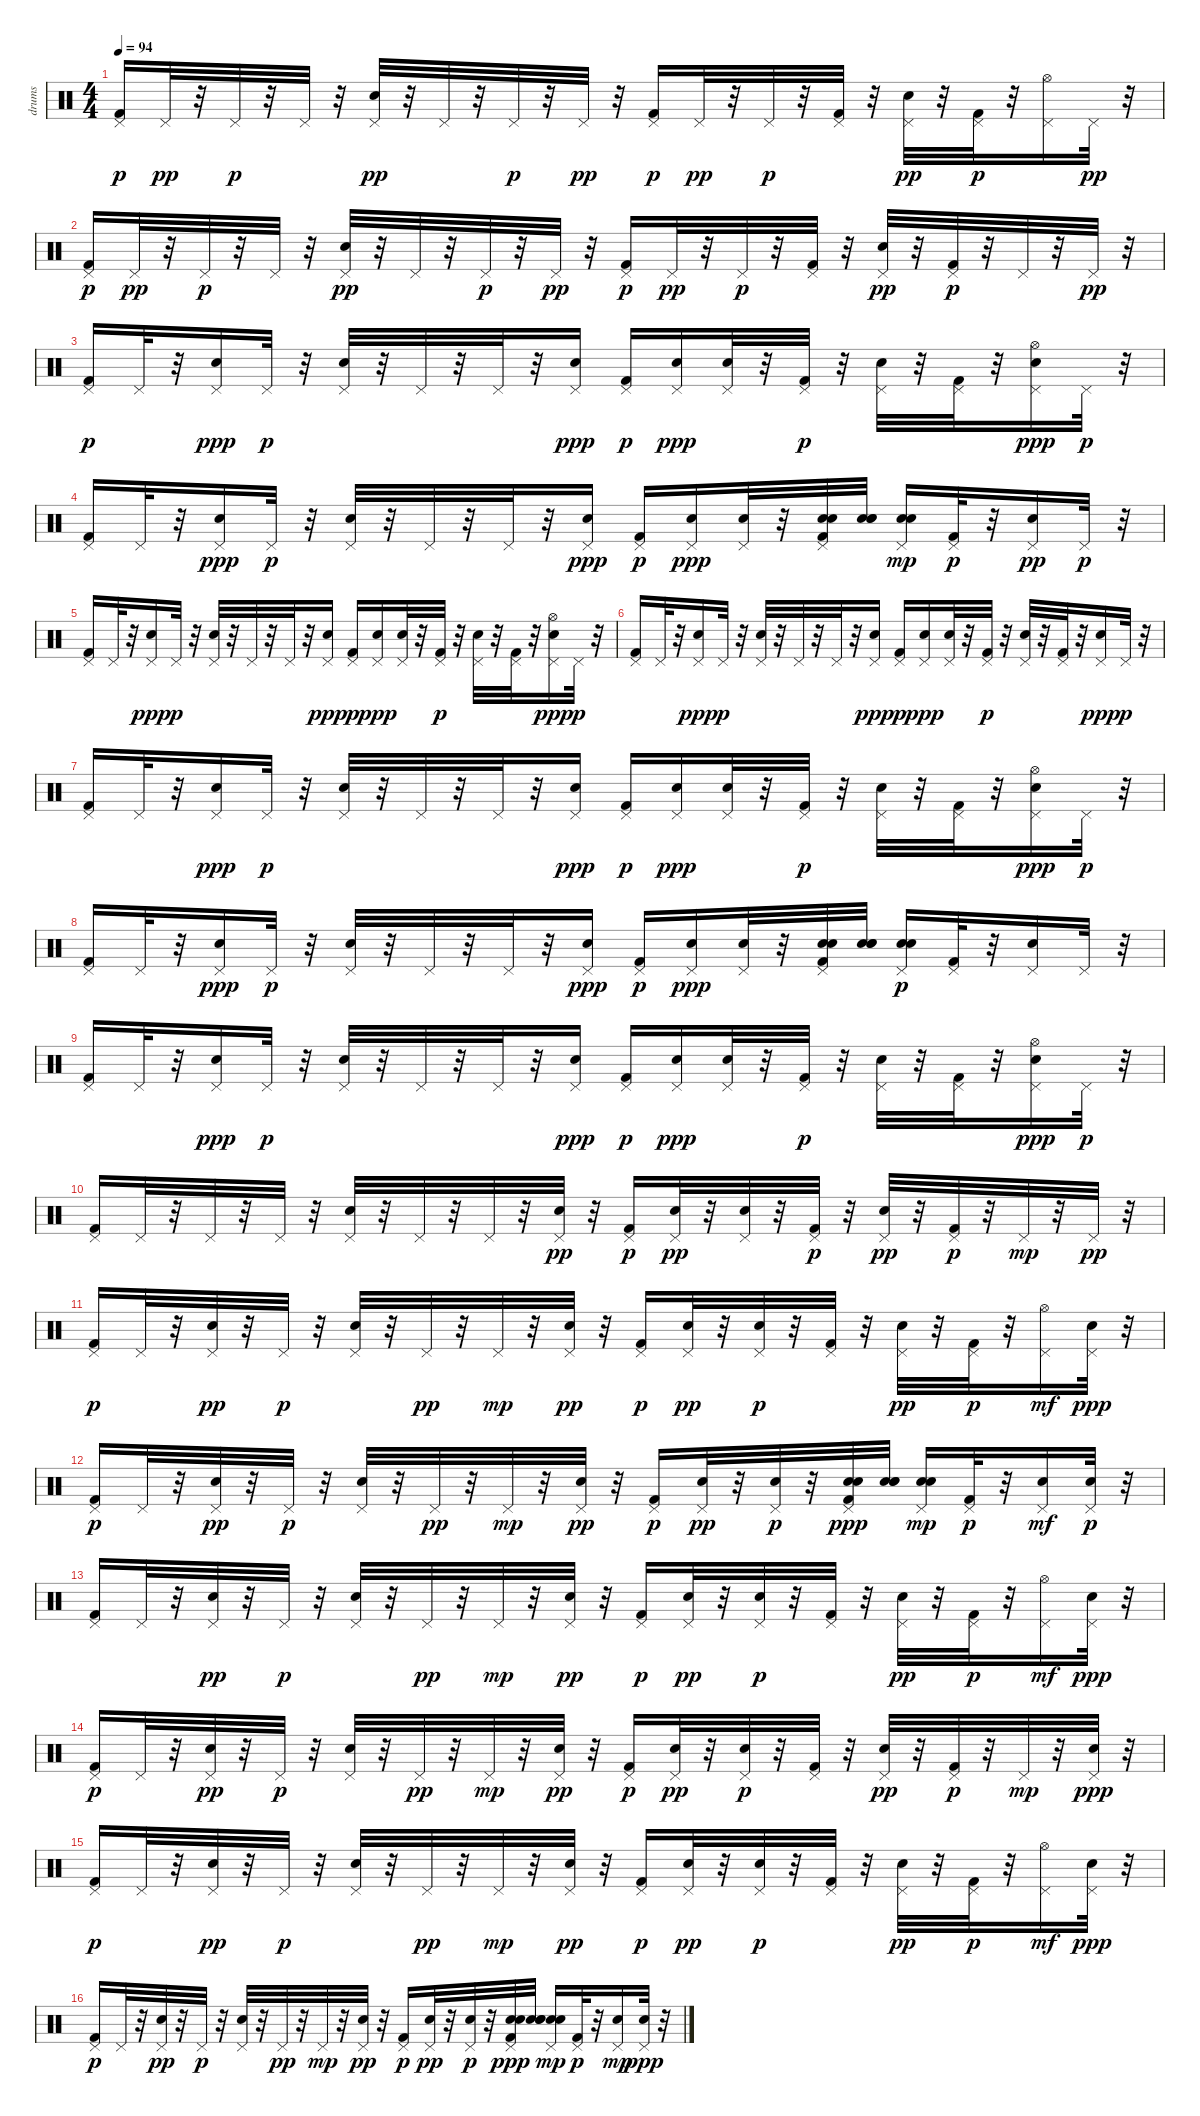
\track ("drums" "drums") {instrument percussion}
\staff {score}
\articulation defaults
\ts (4 4)
\tempo 94
\clef neutral
\ks c
("Pedal Hi-Hat (hit)" "Kick (hit) 2").16{dy p} "Pedal Hi-Hat (hit)".32{dy pp} r.32 "Pedal Hi-Hat (hit)".32{dy p} r.32 "Pedal Hi-Hat (hit)".32 r.32 ("Snare (hit) 2" "Pedal Hi-Hat (hit)").32{dy pp} r.32 "Pedal Hi-Hat (hit)".32 r.32 "Pedal Hi-Hat (hit)".32{dy p} r.32 "Pedal Hi-Hat (hit)".32{dy pp} r.32 ("Pedal Hi-Hat (hit)" "Kick (hit) 2").16{dy p} "Pedal Hi-Hat (hit)".32{dy pp} r.32 "Pedal Hi-Hat (hit)".32{dy p} r.32 ("Pedal Hi-Hat (hit)" "Kick (hit) 2").32 r.32 ("Snare (hit) 2" "Pedal Hi-Hat (hit)").32{dy pp} r.32 ("Pedal Hi-Hat (hit)" "Kick (hit) 2").32{dy p} r.32 ("Hi-Hat (open)" "Pedal Hi-Hat (hit)").16 "Pedal Hi-Hat (hit)".32{dy pp} r.32 |
("Pedal Hi-Hat (hit)" "Kick (hit) 2").16{dy p} "Pedal Hi-Hat (hit)".32{dy pp} r.32 "Pedal Hi-Hat (hit)".32{dy p} r.32 "Pedal Hi-Hat (hit)".32 r.32 ("Snare (hit) 2" "Pedal Hi-Hat (hit)").32{dy pp} r.32 "Pedal Hi-Hat (hit)".32 r.32 "Pedal Hi-Hat (hit)".32{dy p} r.32 "Pedal Hi-Hat (hit)".32{dy pp} r.32 ("Pedal Hi-Hat (hit)" "Kick (hit) 2").16{dy p} "Pedal Hi-Hat (hit)".32{dy pp} r.32 "Pedal Hi-Hat (hit)".32{dy p} r.32 ("Pedal Hi-Hat (hit)" "Kick (hit) 2").32 r.32 ("Snare (hit) 2" "Pedal Hi-Hat (hit)").32{dy pp} r.32 ("Pedal Hi-Hat (hit)" "Kick (hit) 2").32{dy p} r.32 "Pedal Hi-Hat (hit)".32 r.32 "Pedal Hi-Hat (hit)".32{dy pp} r.32 |
("Pedal Hi-Hat (hit)" "Kick (hit) 2").16{dy p} "Pedal Hi-Hat (hit)".32 r.32 ("Pedal Hi-Hat (hit)" "Snare (hit) 2").16{dy ppp} "Pedal Hi-Hat (hit)".32{dy p} r.32 ("Snare (hit) 2" "Pedal Hi-Hat (hit)").32 r.32 "Pedal Hi-Hat (hit)".32 r.32 "Pedal Hi-Hat (hit)".32 r.32 ("Pedal Hi-Hat (hit)" "Snare (hit) 2").16{dy ppp} ("Pedal Hi-Hat (hit)" "Kick (hit) 2").16{dy p} ("Pedal Hi-Hat (hit)" "Snare (hit) 2").16{dy ppp} ("Pedal Hi-Hat (hit)" "Snare (hit) 2").32 r.32 ("Pedal Hi-Hat (hit)" "Kick (hit) 2").32{dy p} r.32 ("Snare (hit) 2" "Pedal Hi-Hat (hit)").32 r.32 ("Pedal Hi-Hat (hit)" "Kick (hit) 2").32 r.32 ("Hi-Hat (open)" "Pedal Hi-Hat (hit)" "Snare (hit) 2").16{dy ppp} "Pedal Hi-Hat (hit)".32{dy p} r.32 |
("Pedal Hi-Hat (hit)" "Kick (hit) 2").16 "Pedal Hi-Hat (hit)".32 r.32 ("Pedal Hi-Hat (hit)" "Snare (hit) 2").16{dy ppp} "Pedal Hi-Hat (hit)".32{dy p} r.32 ("Snare (hit) 2" "Pedal Hi-Hat (hit)").32 r.32 "Pedal Hi-Hat (hit)".32 r.32 "Pedal Hi-Hat (hit)".32 r.32 ("Pedal Hi-Hat (hit)" "Snare (hit) 2").16{dy ppp} ("Pedal Hi-Hat (hit)" "Kick (hit) 2").16{dy p} ("Pedal Hi-Hat (hit)" "Snare (hit) 2").16{dy ppp} ("Pedal Hi-Hat (hit)" "Snare (hit) 2").32 r.32 ("Pedal Hi-Hat (hit)" "Snare (hit) 2" "Kick (hit) 2" "Snare (hit) 2").32{balance 0} ("Snare (hit) 2" "Snare (hit) 2" "Snare (hit) 2").32 ("Snare (hit) 2" "Pedal Hi-Hat (hit)" "Snare (hit) 2").16{dy mp} ("Pedal Hi-Hat (hit)" "Kick (hit) 2").32{dy p balance 8} r.32 ("Pedal Hi-Hat (hit)" "Snare (hit) 2").16{dy pp} "Pedal Hi-Hat (hit)".32{dy p} r.32 |
("Pedal Hi-Hat (hit)" "Kick (hit) 2").16 "Pedal Hi-Hat (hit)".32 r.32 ("Pedal Hi-Hat (hit)" "Snare (hit) 2").16{dy ppp} "Pedal Hi-Hat (hit)".32{dy p} r.32 ("Snare (hit) 2" "Pedal Hi-Hat (hit)").32 r.32 "Pedal Hi-Hat (hit)".32 r.32 "Pedal Hi-Hat (hit)".32 r.32 ("Pedal Hi-Hat (hit)" "Snare (hit) 2").16{dy ppp} ("Pedal Hi-Hat (hit)" "Kick (hit) 2").16{dy p} ("Pedal Hi-Hat (hit)" "Snare (hit) 2").16{dy ppp} ("Pedal Hi-Hat (hit)" "Snare (hit) 2").32 r.32 ("Pedal Hi-Hat (hit)" "Kick (hit) 2").32{dy p} r.32 ("Snare (hit) 2" "Pedal Hi-Hat (hit)").32 r.32 ("Pedal Hi-Hat (hit)" "Kick (hit) 2").32 r.32 ("Hi-Hat (open)" "Pedal Hi-Hat (hit)" "Snare (hit) 2").16{dy ppp} "Pedal Hi-Hat (hit)".32{dy p} r.32 |
("Pedal Hi-Hat (hit)" "Kick (hit) 2").16 "Pedal Hi-Hat (hit)".32 r.32 ("Pedal Hi-Hat (hit)" "Snare (hit) 2").16{dy ppp} "Pedal Hi-Hat (hit)".32{dy p} r.32 ("Snare (hit) 2" "Pedal Hi-Hat (hit)").32 r.32 "Pedal Hi-Hat (hit)".32 r.32 "Pedal Hi-Hat (hit)".32 r.32 ("Pedal Hi-Hat (hit)" "Snare (hit) 2").16{dy ppp} ("Pedal Hi-Hat (hit)" "Kick (hit) 2").16{dy p} ("Pedal Hi-Hat (hit)" "Snare (hit) 2").16{dy ppp} ("Pedal Hi-Hat (hit)" "Snare (hit) 2").32 r.32 ("Pedal Hi-Hat (hit)" "Kick (hit) 2").32{dy p} r.32 ("Snare (hit) 2" "Pedal Hi-Hat (hit)").32 r.32 ("Pedal Hi-Hat (hit)" "Kick (hit) 2").32 r.32 ("Pedal Hi-Hat (hit)" "Snare (hit) 2").16{dy ppp} "Pedal Hi-Hat (hit)".32{dy p} r.32 |
("Pedal Hi-Hat (hit)" "Kick (hit) 2").16 "Pedal Hi-Hat (hit)".32 r.32 ("Pedal Hi-Hat (hit)" "Snare (hit) 2").16{dy ppp} "Pedal Hi-Hat (hit)".32{dy p} r.32 ("Snare (hit) 2" "Pedal Hi-Hat (hit)").32 r.32 "Pedal Hi-Hat (hit)".32 r.32 "Pedal Hi-Hat (hit)".32 r.32 ("Pedal Hi-Hat (hit)" "Snare (hit) 2").16{dy ppp} ("Pedal Hi-Hat (hit)" "Kick (hit) 2").16{dy p} ("Pedal Hi-Hat (hit)" "Snare (hit) 2").16{dy ppp} ("Pedal Hi-Hat (hit)" "Snare (hit) 2").32 r.32 ("Pedal Hi-Hat (hit)" "Kick (hit) 2").32{dy p} r.32 ("Snare (hit) 2" "Pedal Hi-Hat (hit)").32 r.32 ("Pedal Hi-Hat (hit)" "Kick (hit) 2").32 r.32 ("Hi-Hat (open)" "Pedal Hi-Hat (hit)" "Snare (hit) 2").16{dy ppp} "Pedal Hi-Hat (hit)".32{dy p} r.32 |
("Pedal Hi-Hat (hit)" "Kick (hit) 2").16 "Pedal Hi-Hat (hit)".32 r.32 ("Pedal Hi-Hat (hit)" "Snare (hit) 2").16{dy ppp} "Pedal Hi-Hat (hit)".32{dy p} r.32 ("Snare (hit) 2" "Pedal Hi-Hat (hit)").32 r.32 "Pedal Hi-Hat (hit)".32 r.32 "Pedal Hi-Hat (hit)".32 r.32 ("Pedal Hi-Hat (hit)" "Snare (hit) 2").16{dy ppp} ("Pedal Hi-Hat (hit)" "Kick (hit) 2").16{dy p} ("Pedal Hi-Hat (hit)" "Snare (hit) 2").16{dy ppp} ("Pedal Hi-Hat (hit)" "Snare (hit) 2").32 r.32 ("Snare (hit) 2" "Pedal Hi-Hat (hit)" "Kick (hit) 2" "Snare (hit) 2").32{balance 0} ("Snare (hit) 2" "Snare (hit) 2" "Snare (hit) 2").32 ("Snare (hit) 2" "Snare (hit) 2" "Pedal Hi-Hat (hit)").16{dy p} ("Pedal Hi-Hat (hit)" "Kick (hit) 2").32{balance 8} r.32 ("Snare (hit) 2" "Pedal Hi-Hat (hit)").16 "Pedal Hi-Hat (hit)".32 r.32 |
("Pedal Hi-Hat (hit)" "Kick (hit) 2").16 "Pedal Hi-Hat (hit)".32 r.32 ("Pedal Hi-Hat (hit)" "Snare (hit) 2").16{dy ppp} "Pedal Hi-Hat (hit)".32{dy p} r.32 ("Snare (hit) 2" "Pedal Hi-Hat (hit)").32 r.32 "Pedal Hi-Hat (hit)".32 r.32 "Pedal Hi-Hat (hit)".32 r.32 ("Pedal Hi-Hat (hit)" "Snare (hit) 2").16{dy ppp} ("Pedal Hi-Hat (hit)" "Kick (hit) 2").16{dy p} ("Pedal Hi-Hat (hit)" "Snare (hit) 2").16{dy ppp} ("Pedal Hi-Hat (hit)" "Snare (hit) 2").32 r.32 ("Pedal Hi-Hat (hit)" "Kick (hit) 2").32{dy p} r.32 ("Snare (hit) 2" "Pedal Hi-Hat (hit)").32 r.32 ("Pedal Hi-Hat (hit)" "Kick (hit) 2").32 r.32 ("Hi-Hat (open)" "Pedal Hi-Hat (hit)" "Snare (hit) 2").16{dy ppp} "Pedal Hi-Hat (hit)".32{dy p} r.32 |
("Pedal Hi-Hat (hit)" "Kick (hit) 2").16 "Pedal Hi-Hat (hit)".32 r.32 "Pedal Hi-Hat (hit)".32 r.32 "Pedal Hi-Hat (hit)".32 r.32 ("Pedal Hi-Hat (hit)" "Snare (hit) 2").32 r.32 "Pedal Hi-Hat (hit)".32 r.32 "Pedal Hi-Hat (hit)".32 r.32 ("Pedal Hi-Hat (hit)" "Electric Snare (hit)").32{dy pp} r.32 ("Pedal Hi-Hat (hit)" "Kick (hit) 2").16{dy p} ("Pedal Hi-Hat (hit)" "Electric Snare (hit)").32{dy pp} r.32 ("Pedal Hi-Hat (hit)" "Electric Snare (hit)").32 r.32 ("Pedal Hi-Hat (hit)" "Kick (hit) 2").32{dy p} r.32 ("Pedal Hi-Hat (hit)" "Electric Snare (hit)").32{dy pp} r.32 ("Pedal Hi-Hat (hit)" "Kick (hit) 2").32{dy p} r.32 "Pedal Hi-Hat (hit)".32{dy mp} r.32 "Pedal Hi-Hat (hit)".32{dy pp} r.32 |
("Pedal Hi-Hat (hit)" "Kick (hit) 2").16{dy p} "Pedal Hi-Hat (hit)".32 r.32 ("Pedal Hi-Hat (hit)" "Electric Snare (hit)").32{dy pp} r.32 "Pedal Hi-Hat (hit)".32{dy p} r.32 ("Pedal Hi-Hat (hit)" "Electric Snare (hit)").32 r.32 "Pedal Hi-Hat (hit)".32{dy pp} r.32 "Pedal Hi-Hat (hit)".32{dy mp} r.32 ("Pedal Hi-Hat (hit)" "Electric Snare (hit)").32{dy pp} r.32 ("Pedal Hi-Hat (hit)" "Kick (hit) 2").16{dy p} ("Pedal Hi-Hat (hit)" "Electric Snare (hit)").32{dy pp} r.32 ("Pedal Hi-Hat (hit)" "Electric Snare (hit)").32{dy p} r.32 ("Pedal Hi-Hat (hit)" "Kick (hit) 2").32 r.32 ("Pedal Hi-Hat (hit)" "Electric Snare (hit)").32{dy pp} r.32 ("Pedal Hi-Hat (hit)" "Kick (hit) 2").32{dy p} r.32 ("Hi-Hat (open)" "Pedal Hi-Hat (hit)").16{dy mf} ("Pedal Hi-Hat (hit)" "Electric Snare (hit)").32{dy ppp} r.32 |
("Pedal Hi-Hat (hit)" "Kick (hit) 2").16{dy p} "Pedal Hi-Hat (hit)".32 r.32 ("Pedal Hi-Hat (hit)" "Electric Snare (hit)").32{dy pp} r.32 "Pedal Hi-Hat (hit)".32{dy p} r.32 ("Pedal Hi-Hat (hit)" "Electric Snare (hit)").32 r.32 "Pedal Hi-Hat (hit)".32{dy pp} r.32 "Pedal Hi-Hat (hit)".32{dy mp} r.32 ("Pedal Hi-Hat (hit)" "Electric Snare (hit)").32{dy pp} r.32 ("Pedal Hi-Hat (hit)" "Kick (hit) 2").16{dy p} ("Pedal Hi-Hat (hit)" "Electric Snare (hit)").32{dy pp} r.32 ("Pedal Hi-Hat (hit)" "Electric Snare (hit)").32{dy p} r.32 ("Snare (hit) 2" "Pedal Hi-Hat (hit)" "Kick (hit) 2" "Snare (hit) 2").32{dy ppp balance 0} ("Snare (hit) 2" "Snare (hit) 2" "Snare (hit) 2").32 ("Snare (hit) 2" "Snare (hit) 2" "Pedal Hi-Hat (hit)").16{dy mp} ("Pedal Hi-Hat (hit)" "Kick (hit) 2").32{dy p} r.32 ("Snare (hit) 2" "Pedal Hi-Hat (hit)").16{dy mf} ("Electric Snare (hit)" "Pedal Hi-Hat (hit)").32{dy p} r.32 |
("Pedal Hi-Hat (hit)" "Kick (hit) 2").16 "Pedal Hi-Hat (hit)".32 r.32 ("Pedal Hi-Hat (hit)" "Electric Snare (hit)").32{dy pp} r.32 "Pedal Hi-Hat (hit)".32{dy p} r.32 ("Pedal Hi-Hat (hit)" "Electric Snare (hit)").32 r.32 "Pedal Hi-Hat (hit)".32{dy pp} r.32 "Pedal Hi-Hat (hit)".32{dy mp} r.32 ("Pedal Hi-Hat (hit)" "Electric Snare (hit)").32{dy pp} r.32 ("Pedal Hi-Hat (hit)" "Kick (hit) 2").16{dy p} ("Pedal Hi-Hat (hit)" "Electric Snare (hit)").32{dy pp} r.32 ("Pedal Hi-Hat (hit)" "Electric Snare (hit)").32{dy p} r.32 ("Pedal Hi-Hat (hit)" "Kick (hit) 2").32 r.32 ("Pedal Hi-Hat (hit)" "Electric Snare (hit)").32{dy pp} r.32 ("Pedal Hi-Hat (hit)" "Kick (hit) 2").32{dy p} r.32 ("Hi-Hat (open)" "Pedal Hi-Hat (hit)").16{dy mf} ("Pedal Hi-Hat (hit)" "Electric Snare (hit)").32{dy ppp} r.32 |
("Pedal Hi-Hat (hit)" "Kick (hit) 2").16{dy p} "Pedal Hi-Hat (hit)".32 r.32 ("Pedal Hi-Hat (hit)" "Electric Snare (hit)").32{dy pp} r.32 "Pedal Hi-Hat (hit)".32{dy p} r.32 ("Pedal Hi-Hat (hit)" "Electric Snare (hit)").32 r.32 "Pedal Hi-Hat (hit)".32{dy pp} r.32 "Pedal Hi-Hat (hit)".32{dy mp} r.32 ("Pedal Hi-Hat (hit)" "Electric Snare (hit)").32{dy pp} r.32 ("Pedal Hi-Hat (hit)" "Kick (hit) 2").16{dy p} ("Pedal Hi-Hat (hit)" "Electric Snare (hit)").32{dy pp} r.32 ("Pedal Hi-Hat (hit)" "Electric Snare (hit)").32{dy p} r.32 ("Pedal Hi-Hat (hit)" "Kick (hit) 2").32 r.32 ("Pedal Hi-Hat (hit)" "Electric Snare (hit)").32{dy pp} r.32 ("Pedal Hi-Hat (hit)" "Kick (hit) 2").32{dy p} r.32 "Pedal Hi-Hat (hit)".32{dy mp} r.32 ("Pedal Hi-Hat (hit)" "Electric Snare (hit)").32{dy ppp} r.32 |
("Pedal Hi-Hat (hit)" "Kick (hit) 2").16{dy p volume 14} "Pedal Hi-Hat (hit)".32 r.32 ("Pedal Hi-Hat (hit)" "Electric Snare (hit)").32{dy pp} r.32 "Pedal Hi-Hat (hit)".32{dy p} r.32 ("Pedal Hi-Hat (hit)" "Electric Snare (hit)").32 r.32 "Pedal Hi-Hat (hit)".32{dy pp} r.32 "Pedal Hi-Hat (hit)".32{dy mp} r.32 ("Pedal Hi-Hat (hit)" "Electric Snare (hit)").32{dy pp} r.32 ("Pedal Hi-Hat (hit)" "Kick (hit) 2").16{dy p} ("Pedal Hi-Hat (hit)" "Electric Snare (hit)").32{dy pp} r.32 ("Pedal Hi-Hat (hit)" "Electric Snare (hit)").32{dy p} r.32 ("Pedal Hi-Hat (hit)" "Kick (hit) 2").32 r.32 ("Pedal Hi-Hat (hit)" "Electric Snare (hit)").32{dy pp} r.32 ("Pedal Hi-Hat (hit)" "Kick (hit) 2").32{dy p} r.32 ("Hi-Hat (open)" "Pedal Hi-Hat (hit)").16{dy mf} ("Pedal Hi-Hat (hit)" "Electric Snare (hit)").32{dy ppp} r.32 |
("Pedal Hi-Hat (hit)" "Kick (hit) 2").16{dy p} "Pedal Hi-Hat (hit)".32 r.32 ("Pedal Hi-Hat (hit)" "Electric Snare (hit)").32{dy pp} r.32 "Pedal Hi-Hat (hit)".32{dy p} r.32 ("Pedal Hi-Hat (hit)" "Electric Snare (hit)").32 r.32 "Pedal Hi-Hat (hit)".32{dy pp} r.32 "Pedal Hi-Hat (hit)".32{dy mp} r.32 ("Pedal Hi-Hat (hit)" "Electric Snare (hit)").32{dy pp} r.32 ("Pedal Hi-Hat (hit)" "Kick (hit) 2").16{dy p} ("Pedal Hi-Hat (hit)" "Electric Snare (hit)").32{dy pp} r.32 ("Pedal Hi-Hat (hit)" "Electric Snare (hit)").32{dy p} r.32 ("Snare (hit) 2" "Pedal Hi-Hat (hit)" "Kick (hit) 2" "Snare (hit) 2").32{dy ppp balance 0} ("Snare (hit) 2" "Snare (hit) 2" "Snare (hit) 2").32 ("Snare (hit) 2" "Snare (hit) 2" "Pedal Hi-Hat (hit)").16{dy mp} ("Pedal Hi-Hat (hit)" "Kick (hit) 2").32{dy p} r.32 ("Snare (hit) 2" "Pedal Hi-Hat (hit)").16{dy mp} ("Pedal Hi-Hat (hit)" "Electric Snare (hit)").32{dy ppp} r.32
